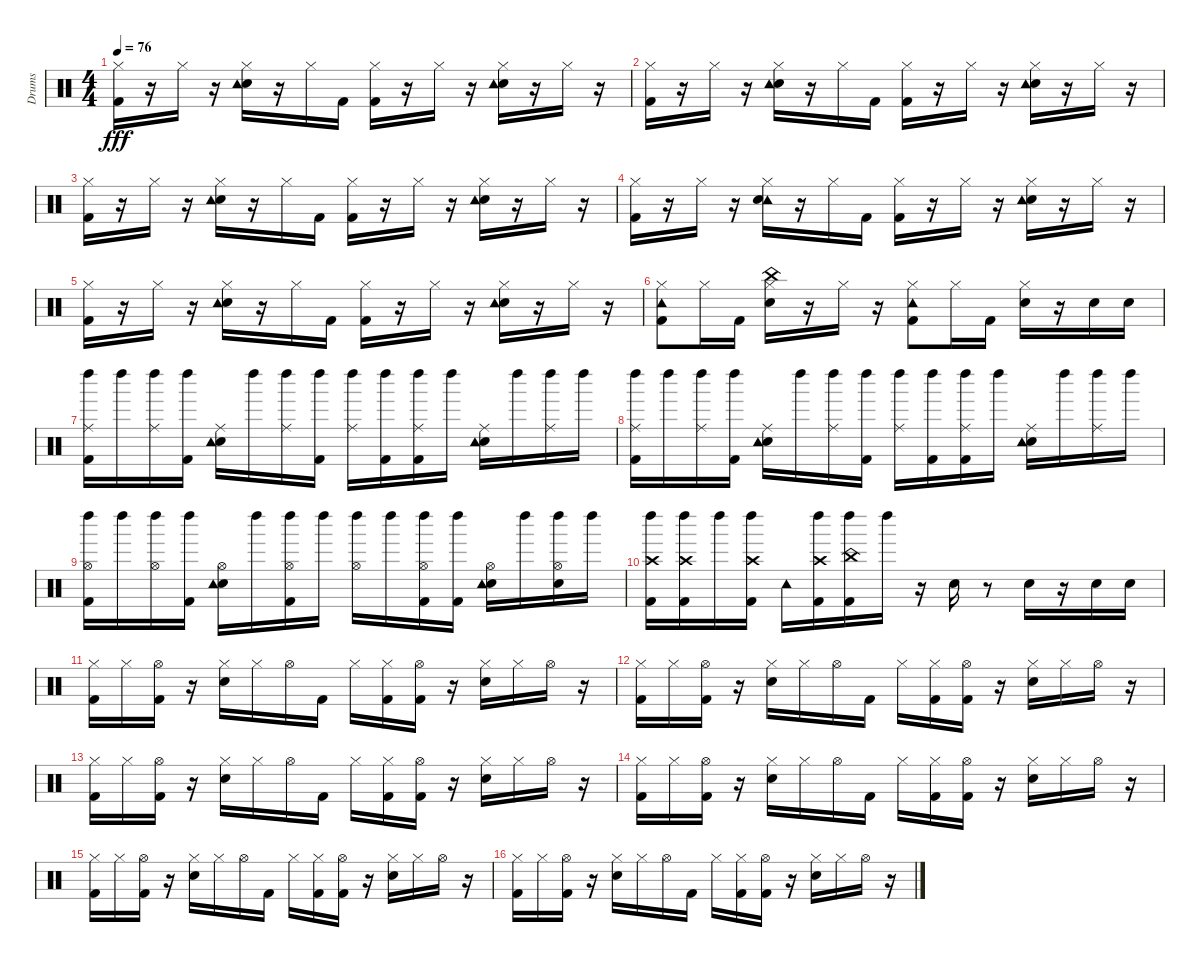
\track ("Drums" "Drums") {instrument percussion}
\staff {score}
\articulation defaults
\ts (4 4)
\tempo 76
\clef neutral
\ks c
("Kick (hit) 2" "Hi-Hat (closed)").16{dy fff} r.16 "Hi-Hat (closed)".16 r.16 ("Electric Snare (hit)" "Hi-Hat (closed)" "Tambourine (hit)").16 r.16 "Hi-Hat (closed)".16 "Kick (hit) 2".16 ("Kick (hit) 2" "Hi-Hat (closed)").16 r.16 "Hi-Hat (closed)".16 r.16 ("Electric Snare (hit)" "Tambourine (hit)" "Hi-Hat (closed)").16 r.16 "Hi-Hat (closed)".16 r.16 |
("Kick (hit) 2" "Hi-Hat (closed)").16 r.16 "Hi-Hat (closed)".16 r.16 ("Electric Snare (hit)" "Hi-Hat (closed)" "Tambourine (hit)").16 r.16 "Hi-Hat (closed)".16 "Kick (hit) 2".16 ("Kick (hit) 2" "Hi-Hat (closed)").16 r.16 "Hi-Hat (closed)".16 r.16 ("Electric Snare (hit)" "Hi-Hat (closed)" "Tambourine (hit)").16 r.16 "Hi-Hat (closed)".16 r.16 |
("Hi-Hat (closed)" "Kick (hit) 2").16 r.16 "Hi-Hat (closed)".16 r.16 ("Electric Snare (hit)" "Tambourine (hit)" "Hi-Hat (closed)").16 r.16 "Hi-Hat (closed)".16 "Kick (hit) 2".16 ("Kick (hit) 2" "Hi-Hat (closed)").16 r.16 "Hi-Hat (closed)".16 r.16 ("Electric Snare (hit)" "Hi-Hat (closed)" "Tambourine (hit)").16 r.16 "Hi-Hat (closed)".16 r.16 |
("Kick (hit) 2" "Hi-Hat (closed)").16 r.16 "Hi-Hat (closed)".16 r.16 ("Tambourine (hit)" "Electric Snare (hit)" "Hi-Hat (closed)").16 r.16 "Hi-Hat (closed)".16 "Kick (hit) 2".16 ("Kick (hit) 2" "Hi-Hat (closed)").16 r.16 "Hi-Hat (closed)".16 r.16 ("Electric Snare (hit)" "Tambourine (hit)" "Hi-Hat (closed)").16 r.16 "Hi-Hat (closed)".16 r.16 |
("Kick (hit) 2" "Hi-Hat (closed)").16 r.16 "Hi-Hat (closed)".16 r.16 ("Electric Snare (hit)" "Tambourine (hit)" "Hi-Hat (closed)").16 r.16 "Hi-Hat (closed)".16 "Kick (hit) 2".16 ("Hi-Hat (closed)" "Kick (hit) 2").16 r.16 "Hi-Hat (closed)".16 r.16 ("Electric Snare (hit)" "Hi-Hat (closed)" "Tambourine (hit)").16 r.16 "Hi-Hat (closed)".16 r.16 |
("Hi-Hat (closed)" "Tambourine (hit)" "Kick (hit) 2").8 "Hi-Hat (closed)".16 "Kick (hit) 2".16 ("Electric Snare (hit)" "Hi-Hat (closed)" "China (hit)").16 r.16 "Hi-Hat (closed)".16 r.16 ("Tambourine (hit)" "Kick (hit) 2" "Hi-Hat (closed)").8 "Hi-Hat (closed)".16 "Kick (hit) 2".16 ("Electric Snare (hit)" "Hi-Hat (closed)").16 r.16 "Electric Snare (hit)".16 "Electric Snare (hit)".16 |
("Kick (hit) 2" "Ride (middle)" "Left Maraca (hit)").16 "Left Maraca (hit)".16 ("Ride (middle)" "Left Maraca (hit)").16 ("Kick (hit) 2" "Left Maraca (hit)").16 ("Electric Snare (hit)" "Ride (middle)" "Tambourine (hit)").16 "Left Maraca (hit)".16 ("Ride (middle)" "Left Maraca (hit)").16 ("Kick (hit) 2" "Left Maraca (hit)").16 ("Ride (middle)" "Left Maraca (hit)").16 ("Kick (hit) 2" "Left Maraca (hit)").16 ("Kick (hit) 2" "Ride (middle)" "Left Maraca (hit)").16 "Left Maraca (hit)".16 ("Electric Snare (hit)" "Ride (middle)" "Tambourine (hit)").16 "Left Maraca (hit)".16 ("Ride (middle)" "Left Maraca (hit)").16 "Left Maraca (hit)".16 |
("Kick (hit) 2" "Ride (middle)" "Left Maraca (hit)").16 "Left Maraca (hit)".16 ("Ride (middle)" "Left Maraca (hit)").16 ("Kick (hit) 2" "Left Maraca (hit)").16 ("Electric Snare (hit)" "Ride (middle)" "Tambourine (hit)").16 "Left Maraca (hit)".16 ("Ride (middle)" "Left Maraca (hit)").16 ("Kick (hit) 2" "Left Maraca (hit)").16 ("Ride (middle)" "Left Maraca (hit)").16 ("Kick (hit) 2" "Left Maraca (hit)").16 ("Kick (hit) 2" "Ride (middle)" "Left Maraca (hit)").16 "Left Maraca (hit)".16 ("Electric Snare (hit)" "Ride (middle)" "Tambourine (hit)").16 "Left Maraca (hit)".16 ("Ride (middle)" "Left Maraca (hit)").16 "Left Maraca (hit)".16 |
("Kick (hit) 2" "Hi-Hat (open)" "Left Maraca (hit)").16 "Left Maraca (hit)".16 ("Hi-Hat (open)" "Left Maraca (hit)").16 ("Kick (hit) 2" "Left Maraca (hit)").16 ("Electric Snare (hit)" "Hi-Hat (open)" "Tambourine (hit)").16 "Left Maraca (hit)".16 ("Kick (hit) 2" "Hi-Hat (open)" "Left Maraca (hit)").16 "Left Maraca (hit)".16 ("Hi-Hat (open)" "Left Maraca (hit)").16 "Left Maraca (hit)".16 ("Kick (hit) 2" "Hi-Hat (open)" "Left Maraca (hit)").16 ("Kick (hit) 2" "Left Maraca (hit)").16 ("Electric Snare (hit)" "Hi-Hat (open)" "Tambourine (hit)").16 "Left Maraca (hit)".16 ("Electric Snare (hit)" "Hi-Hat (open)" "Left Maraca (hit)").16 "Left Maraca (hit)".16 |
("Kick (hit) 2" "Crash high (hit)" "Left Maraca (hit)").16 ("Kick (hit) 2" "Crash high (hit)" "Left Maraca (hit)").16 "Left Maraca (hit)".16 ("Kick (hit) 2" "Crash high (hit)" "Left Maraca (hit)").16 "Tambourine (hit)".16 ("Kick (hit) 2" "Crash high (hit)" "Left Maraca (hit)").16 ("Kick (hit) 2" "China (hit)" "Left Maraca (hit)").16 "Left Maraca (hit)".16 r.16 "Electric Snare (hit)".16 r.8 "Electric Snare (hit)".16 r.16 "Electric Snare (hit)".16 "Electric Snare (hit)".16 |
("Kick (hit) 2" "Hi-Hat (closed)").16 "Hi-Hat (closed)".16 ("Kick (hit) 2" "Hi-Hat (open)").16 r.16 ("Electric Snare (hit)" "Hi-Hat (closed)").16 "Hi-Hat (closed)".16 "Hi-Hat (open)".16 "Kick (hit) 2".16 "Hi-Hat (closed)".16 ("Kick (hit) 2" "Hi-Hat (closed)").16 ("Kick (hit) 2" "Hi-Hat (open)").16 r.16 ("Electric Snare (hit)" "Hi-Hat (closed)").16 "Hi-Hat (closed)".16 "Hi-Hat (open)".16 r.16 |
("Kick (hit) 2" "Hi-Hat (closed)").16 "Hi-Hat (closed)".16 ("Kick (hit) 2" "Hi-Hat (open)").16 r.16 ("Electric Snare (hit)" "Hi-Hat (closed)").16 "Hi-Hat (closed)".16 "Hi-Hat (open)".16 "Kick (hit) 2".16 "Hi-Hat (closed)".16 ("Kick (hit) 2" "Hi-Hat (closed)").16 ("Kick (hit) 2" "Hi-Hat (open)").16 r.16 ("Electric Snare (hit)" "Hi-Hat (closed)").16 "Hi-Hat (closed)".16 "Hi-Hat (open)".16 r.16 |
("Kick (hit) 2" "Hi-Hat (closed)").16 "Hi-Hat (closed)".16 ("Kick (hit) 2" "Hi-Hat (open)").16 r.16 ("Electric Snare (hit)" "Hi-Hat (closed)").16 "Hi-Hat (closed)".16 "Hi-Hat (open)".16 "Kick (hit) 2".16 "Hi-Hat (closed)".16 ("Kick (hit) 2" "Hi-Hat (closed)").16 ("Kick (hit) 2" "Hi-Hat (open)").16 r.16 ("Electric Snare (hit)" "Hi-Hat (closed)").16 "Hi-Hat (closed)".16 "Hi-Hat (open)".16 r.16 |
("Kick (hit) 2" "Hi-Hat (closed)").16 "Hi-Hat (closed)".16 ("Kick (hit) 2" "Hi-Hat (open)").16 r.16 ("Electric Snare (hit)" "Hi-Hat (closed)").16 "Hi-Hat (closed)".16 "Hi-Hat (open)".16 "Kick (hit) 2".16 "Hi-Hat (closed)".16 ("Kick (hit) 2" "Hi-Hat (closed)").16 ("Kick (hit) 2" "Hi-Hat (open)").16 r.16 ("Electric Snare (hit)" "Hi-Hat (closed)").16 "Hi-Hat (closed)".16 "Hi-Hat (open)".16 r.16 |
("Kick (hit) 2" "Hi-Hat (closed)").16 "Hi-Hat (closed)".16 ("Kick (hit) 2" "Hi-Hat (open)").16 r.16 ("Electric Snare (hit)" "Hi-Hat (closed)").16 "Hi-Hat (closed)".16 "Hi-Hat (open)".16 "Kick (hit) 2".16 "Hi-Hat (closed)".16 ("Kick (hit) 2" "Hi-Hat (closed)").16 ("Kick (hit) 2" "Hi-Hat (open)").16 r.16 ("Electric Snare (hit)" "Hi-Hat (closed)").16 "Hi-Hat (closed)".16 "Hi-Hat (open)".16 r.16 |
("Kick (hit) 2" "Hi-Hat (closed)").16 "Hi-Hat (closed)".16 ("Kick (hit) 2" "Hi-Hat (open)").16 r.16 ("Electric Snare (hit)" "Hi-Hat (closed)").16 "Hi-Hat (closed)".16 "Hi-Hat (open)".16 "Kick (hit) 2".16 "Hi-Hat (closed)".16 ("Kick (hit) 2" "Hi-Hat (closed)").16 ("Kick (hit) 2" "Hi-Hat (open)").16 r.16 ("Electric Snare (hit)" "Hi-Hat (closed)").16 "Hi-Hat (closed)".16 "Hi-Hat (open)".16 r.16
